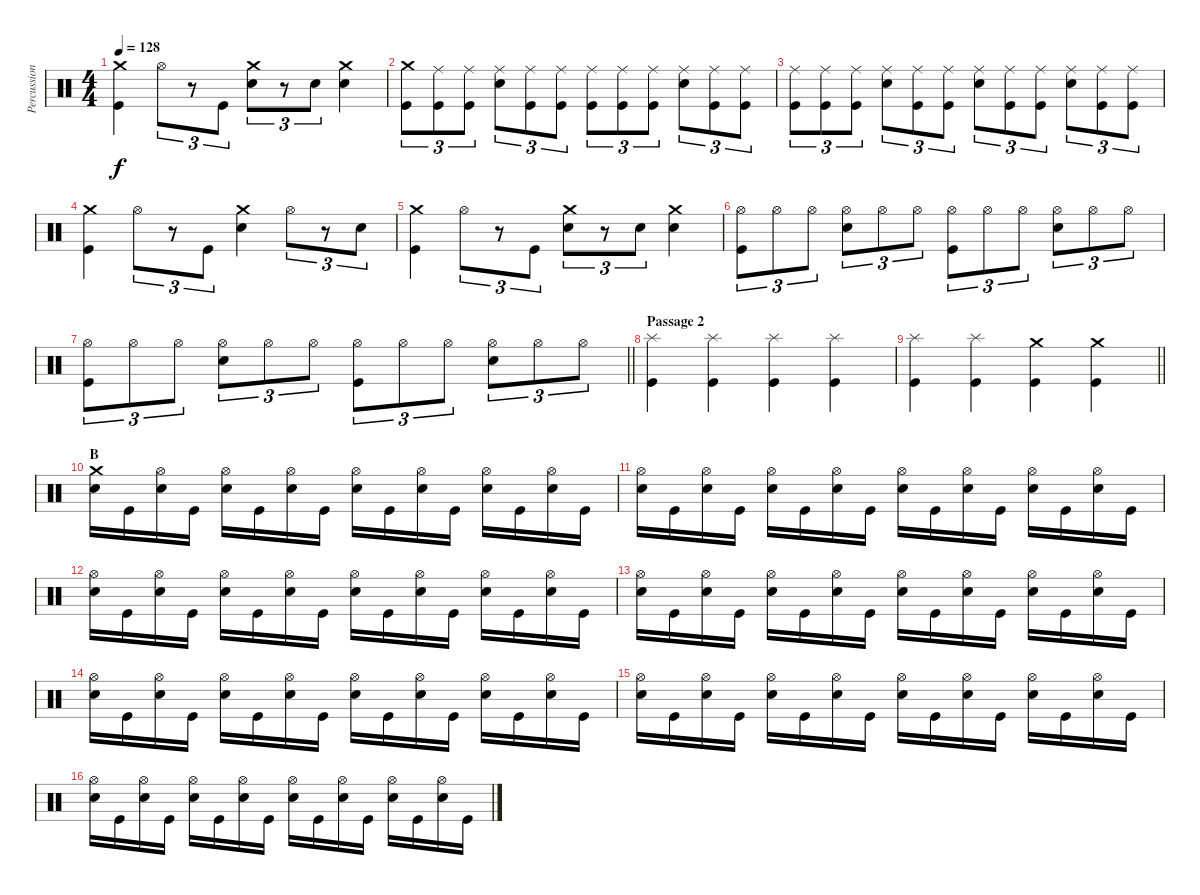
\track ("Percussion" "Percussion") {instrument percussion}
\staff {score}
\articulation defaults
\ts (4 4)
\tempo 128
\clef neutral
\ks c
("Kick (hit)" "Crash medium (hit)").4{dy f} "Hi-Hat (open)".8{tu (3 2)} r.8{tu (3 2)} "Kick (hit)".8{tu (3 2)} ("Snare (hit) 2" "Crash medium (hit)").8{tu (3 2)} r.8{tu (3 2)} "Snare (hit) 2".8{tu (3 2)} ("Snare (hit) 2" "Crash medium (hit)").4 |
("Kick (hit)" "Crash medium (hit)").8{tu (3 2)} ("Kick (hit)" "Ride (middle)").8{tu (3 2)} ("Kick (hit)" "Ride (middle)").8{tu (3 2)} ("Snare (hit) 2" "Ride (middle)").8{tu (3 2)} ("Kick (hit)" "Ride (middle)").8{tu (3 2)} ("Kick (hit)" "Ride (middle)").8{tu (3 2)} ("Kick (hit)" "Ride (middle)").8{tu (3 2)} ("Kick (hit)" "Ride (middle)").8{tu (3 2)} ("Kick (hit)" "Ride (middle)").8{tu (3 2)} ("Snare (hit) 2" "Ride (middle)").8{tu (3 2)} ("Kick (hit)" "Ride (middle)").8{tu (3 2)} ("Kick (hit)" "Ride (middle)").8{tu (3 2)} |
("Kick (hit)" "Ride (middle)").8{tu (3 2)} ("Kick (hit)" "Ride (middle)").8{tu (3 2)} ("Kick (hit)" "Ride (middle)").8{tu (3 2)} ("Snare (hit) 2" "Ride (middle)").8{tu (3 2)} ("Kick (hit)" "Ride (middle)").8{tu (3 2)} ("Kick (hit)" "Ride (middle)").8{tu (3 2)} ("Snare (hit) 2" "Ride (middle)").8{tu (3 2)} ("Kick (hit)" "Ride (middle)").8{tu (3 2)} ("Kick (hit)" "Ride (middle)").8{tu (3 2)} ("Snare (hit) 2" "Ride (middle)").8{tu (3 2)} ("Kick (hit)" "Ride (middle)").8{tu (3 2)} ("Kick (hit)" "Ride (middle)").8{tu (3 2)} |
("Kick (hit)" "Crash medium (hit)").4 "Hi-Hat (open)".8{tu (3 2)} r.8{tu (3 2)} "Kick (hit)".8{tu (3 2)} ("Snare (hit) 2" "Crash medium (hit)").4 "Hi-Hat (open)".8{tu (3 2)} r.8{tu (3 2)} "Snare (hit) 2".8{tu (3 2)} |
("Kick (hit)" "Crash medium (hit)").4 "Hi-Hat (open)".8{tu (3 2)} r.8{tu (3 2)} "Kick (hit)".8{tu (3 2)} ("Snare (hit) 2" "Crash medium (hit)").8{tu (3 2)} r.8{tu (3 2)} "Snare (hit) 2".8{tu (3 2)} ("Snare (hit) 2" "Crash medium (hit)").4 |
("Kick (hit)" "Hi-Hat (open)").8{tu (3 2)} "Hi-Hat (open)".8{tu (3 2)} "Hi-Hat (open)".8{tu (3 2)} ("Snare (hit) 2" "Hi-Hat (open)").8{tu (3 2)} "Hi-Hat (open)".8{tu (3 2)} "Hi-Hat (open)".8{tu (3 2)} ("Kick (hit)" "Hi-Hat (open)").8{tu (3 2)} "Hi-Hat (open)".8{tu (3 2)} "Hi-Hat (open)".8{tu (3 2)} ("Snare (hit) 2" "Hi-Hat (open)").8{tu (3 2)} "Hi-Hat (open)".8{tu (3 2)} "Hi-Hat (open)".8{tu (3 2)} |
\barLineRight lightlight
("Kick (hit)" "Hi-Hat (open)").8{tu (3 2)} "Hi-Hat (open)".8{tu (3 2)} "Hi-Hat (open)".8{tu (3 2)} ("Snare (hit) 2" "Hi-Hat (open)").8{tu (3 2)} "Hi-Hat (open)".8{tu (3 2)} "Hi-Hat (open)".8{tu (3 2)} ("Kick (hit)" "Hi-Hat (open)").8{tu (3 2)} "Hi-Hat (open)".8{tu (3 2)} "Hi-Hat (open)".8{tu (3 2)} ("Snare (hit) 2" "Hi-Hat (open)").8{tu (3 2)} "Hi-Hat (open)".8{tu (3 2)} "Hi-Hat (open)".8{tu (3 2)} |
\section ("" "Passage 2")
("Kick (hit)" "Splash (hit)").4 ("Kick (hit)" "Splash (hit)").4 ("Kick (hit)" "Splash (hit)").4 ("Kick (hit)" "Splash (hit)").4 |
\barLineRight lightlight
("Kick (hit)" "Splash (hit)").4 ("Kick (hit)" "Splash (hit)").4 ("Kick (hit)" "Crash medium (hit)").4 ("Kick (hit)" "Crash medium (hit)").4 |
\section ("" "B")
("Snare (hit) 2" "Crash medium (hit)").16 "Kick (hit)".16 ("Snare (hit) 2" "Hi-Hat (open)").16 "Kick (hit)".16 ("Snare (hit) 2" "Hi-Hat (open)").16 "Kick (hit)".16 ("Snare (hit) 2" "Hi-Hat (open)").16 "Kick (hit)".16 ("Snare (hit) 2" "Hi-Hat (open)").16 "Kick (hit)".16 ("Snare (hit) 2" "Hi-Hat (open)").16 "Kick (hit)".16 ("Snare (hit) 2" "Hi-Hat (open)").16 "Kick (hit)".16 ("Snare (hit) 2" "Hi-Hat (open)").16 "Kick (hit)".16 |
("Snare (hit) 2" "Hi-Hat (open)").16 "Kick (hit)".16 ("Snare (hit) 2" "Hi-Hat (open)").16 "Kick (hit)".16 ("Snare (hit) 2" "Hi-Hat (open)").16 "Kick (hit)".16 ("Snare (hit) 2" "Hi-Hat (open)").16 "Kick (hit)".16 ("Snare (hit) 2" "Hi-Hat (open)").16 "Kick (hit)".16 ("Snare (hit) 2" "Hi-Hat (open)").16 "Kick (hit)".16 ("Snare (hit) 2" "Hi-Hat (open)").16 "Kick (hit)".16 ("Snare (hit) 2" "Hi-Hat (open)").16 "Kick (hit)".16 |
("Snare (hit) 2" "Hi-Hat (open)").16 "Kick (hit)".16 ("Snare (hit) 2" "Hi-Hat (open)").16 "Kick (hit)".16 ("Snare (hit) 2" "Hi-Hat (open)").16 "Kick (hit)".16 ("Snare (hit) 2" "Hi-Hat (open)").16 "Kick (hit)".16 ("Snare (hit) 2" "Hi-Hat (open)").16 "Kick (hit)".16 ("Snare (hit) 2" "Hi-Hat (open)").16 "Kick (hit)".16 ("Snare (hit) 2" "Hi-Hat (open)").16 "Kick (hit)".16 ("Snare (hit) 2" "Hi-Hat (open)").16 "Kick (hit)".16 |
("Snare (hit) 2" "Hi-Hat (open)").16 "Kick (hit)".16 ("Snare (hit) 2" "Hi-Hat (open)").16 "Kick (hit)".16 ("Snare (hit) 2" "Hi-Hat (open)").16 "Kick (hit)".16 ("Snare (hit) 2" "Hi-Hat (open)").16 "Kick (hit)".16 ("Snare (hit) 2" "Hi-Hat (open)").16 "Kick (hit)".16 ("Snare (hit) 2" "Hi-Hat (open)").16 "Kick (hit)".16 ("Snare (hit) 2" "Hi-Hat (open)").16 "Kick (hit)".16 ("Snare (hit) 2" "Hi-Hat (open)").16 "Kick (hit)".16 |
("Snare (hit) 2" "Hi-Hat (open)").16 "Kick (hit)".16 ("Snare (hit) 2" "Hi-Hat (open)").16 "Kick (hit)".16 ("Snare (hit) 2" "Hi-Hat (open)").16 "Kick (hit)".16 ("Snare (hit) 2" "Hi-Hat (open)").16 "Kick (hit)".16 ("Snare (hit) 2" "Hi-Hat (open)").16 "Kick (hit)".16 ("Snare (hit) 2" "Hi-Hat (open)").16 "Kick (hit)".16 ("Snare (hit) 2" "Hi-Hat (open)").16 "Kick (hit)".16 ("Snare (hit) 2" "Hi-Hat (open)").16 "Kick (hit)".16 |
("Snare (hit) 2" "Hi-Hat (open)").16 "Kick (hit)".16 ("Snare (hit) 2" "Hi-Hat (open)").16 "Kick (hit)".16 ("Snare (hit) 2" "Hi-Hat (open)").16 "Kick (hit)".16 ("Snare (hit) 2" "Hi-Hat (open)").16 "Kick (hit)".16 ("Snare (hit) 2" "Hi-Hat (open)").16 "Kick (hit)".16 ("Snare (hit) 2" "Hi-Hat (open)").16 "Kick (hit)".16 ("Snare (hit) 2" "Hi-Hat (open)").16 "Kick (hit)".16 ("Snare (hit) 2" "Hi-Hat (open)").16 "Kick (hit)".16 |
("Snare (hit) 2" "Hi-Hat (open)").16 "Kick (hit)".16 ("Snare (hit) 2" "Hi-Hat (open)").16 "Kick (hit)".16 ("Snare (hit) 2" "Hi-Hat (open)").16 "Kick (hit)".16 ("Snare (hit) 2" "Hi-Hat (open)").16 "Kick (hit)".16 ("Snare (hit) 2" "Hi-Hat (open)").16 "Kick (hit)".16 ("Snare (hit) 2" "Hi-Hat (open)").16 "Kick (hit)".16 ("Snare (hit) 2" "Hi-Hat (open)").16 "Kick (hit)".16 ("Snare (hit) 2" "Hi-Hat (open)").16 "Kick (hit)".16
